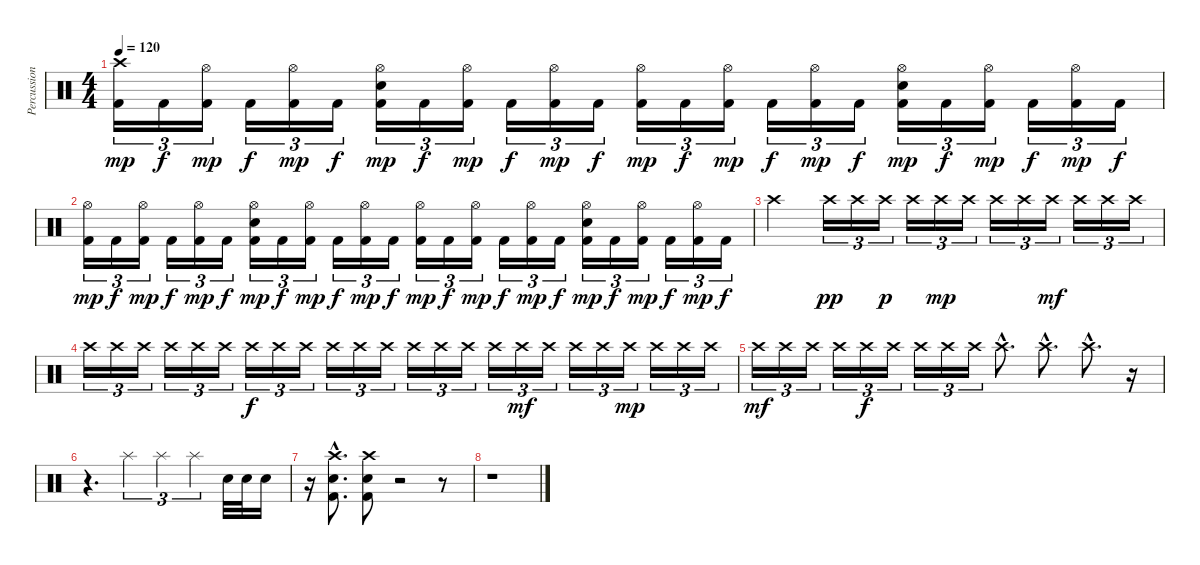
\track ("Percussion" "Percussion") {instrument percussion}
\staff {score}
\articulation defaults
\ts (4 4)
\tempo 120
\clef neutral
\ks c
("Crash high (hit)" "Kick (hit) 2").16{tu (3 2) dy mp} "Kick (hit) 2".16{tu (3 2) dy f} ("Hi-Hat (open)" "Kick (hit) 2").16{tu (3 2) dy mp} "Kick (hit) 2".16{tu (3 2) dy f} ("Hi-Hat (open)" "Kick (hit) 2").16{tu (3 2) dy mp} "Kick (hit) 2".16{tu (3 2) dy f} ("Hi-Hat (open)" "Electric Snare (hit)" "Kick (hit) 2").16{tu (3 2) dy mp} "Kick (hit) 2".16{tu (3 2) dy f} ("Hi-Hat (open)" "Kick (hit) 2").16{tu (3 2) dy mp} "Kick (hit) 2".16{tu (3 2) dy f} ("Hi-Hat (open)" "Kick (hit) 2").16{tu (3 2) dy mp} "Kick (hit) 2".16{tu (3 2) dy f} ("Hi-Hat (open)" "Kick (hit) 2").16{tu (3 2) dy mp} "Kick (hit) 2".16{tu (3 2) dy f} ("Hi-Hat (open)" "Kick (hit) 2").16{tu (3 2) dy mp} "Kick (hit) 2".16{tu (3 2) dy f} ("Hi-Hat (open)" "Kick (hit) 2").16{tu (3 2) dy mp} "Kick (hit) 2".16{tu (3 2) dy f} ("Hi-Hat (open)" "Electric Snare (hit)" "Kick (hit) 2").16{tu (3 2) dy mp} "Kick (hit) 2".16{tu (3 2) dy f} ("Hi-Hat (open)" "Kick (hit) 2").16{tu (3 2) dy mp} "Kick (hit) 2".16{tu (3 2) dy f} ("Hi-Hat (open)" "Kick (hit) 2").16{tu (3 2) dy mp} "Kick (hit) 2".16{tu (3 2) dy f} |
("Hi-Hat (open)" "Kick (hit) 2").16{tu (3 2) dy mp} "Kick (hit) 2".16{tu (3 2) dy f} ("Hi-Hat (open)" "Kick (hit) 2").16{tu (3 2) dy mp} "Kick (hit) 2".16{tu (3 2) dy f} ("Hi-Hat (open)" "Kick (hit) 2").16{tu (3 2) dy mp} "Kick (hit) 2".16{tu (3 2) dy f} ("Hi-Hat (open)" "Electric Snare (hit)" "Kick (hit) 2").16{tu (3 2) dy mp} "Kick (hit) 2".16{tu (3 2) dy f} ("Hi-Hat (open)" "Kick (hit) 2").16{tu (3 2) dy mp} "Kick (hit) 2".16{tu (3 2) dy f} ("Hi-Hat (open)" "Kick (hit) 2").16{tu (3 2) dy mp} "Kick (hit) 2".16{tu (3 2) dy f} ("Hi-Hat (open)" "Kick (hit) 2").16{tu (3 2) dy mp} "Kick (hit) 2".16{tu (3 2) dy f} ("Hi-Hat (open)" "Kick (hit) 2").16{tu (3 2) dy mp} "Kick (hit) 2".16{tu (3 2) dy f} ("Hi-Hat (open)" "Kick (hit) 2").16{tu (3 2) dy mp} "Kick (hit) 2".16{tu (3 2) dy f} ("Hi-Hat (open)" "Electric Snare (hit)" "Kick (hit) 2").16{tu (3 2) dy mp} "Kick (hit) 2".16{tu (3 2) dy f} ("Hi-Hat (open)" "Kick (hit) 2").16{tu (3 2) dy mp} "Kick (hit) 2".16{tu (3 2) dy f} ("Hi-Hat (open)" "Kick (hit) 2").16{tu (3 2) dy mp} "Kick (hit) 2".16{tu (3 2) dy f} |
"Crash high (hit)".2 "Crash high (hit)".16{tu (3 2) dy pp} "Crash high (hit)".16{tu (3 2)} "Crash high (hit)".16{tu (3 2) dy p} "Crash high (hit)".16{tu (3 2)} "Crash high (hit)".16{tu (3 2) dy mp} "Crash high (hit)".16{tu (3 2)} "Crash high (hit)".16{tu (3 2)} "Crash high (hit)".16{tu (3 2)} "Crash high (hit)".16{tu (3 2) dy mf} "Crash high (hit)".16{tu (3 2)} "Crash high (hit)".16{tu (3 2)} "Crash high (hit)".16{tu (3 2)} |
"Crash high (hit)".16{tu (3 2)} "Crash high (hit)".16{tu (3 2)} "Crash high (hit)".16{tu (3 2)} "Crash high (hit)".16{tu (3 2)} "Crash high (hit)".16{tu (3 2)} "Crash high (hit)".16{tu (3 2)} "Crash high (hit)".16{tu (3 2) dy f} "Crash high (hit)".16{tu (3 2)} "Crash high (hit)".16{tu (3 2)} "Crash high (hit)".16{tu (3 2)} "Crash high (hit)".16{tu (3 2)} "Crash high (hit)".16{tu (3 2)} "Crash high (hit)".16{tu (3 2)} "Crash high (hit)".16{tu (3 2)} "Crash high (hit)".16{tu (3 2)} "Crash high (hit)".16{tu (3 2)} "Crash high (hit)".16{tu (3 2) dy mf} "Crash high (hit)".16{tu (3 2)} "Crash high (hit)".16{tu (3 2)} "Crash high (hit)".16{tu (3 2)} "Crash high (hit)".16{tu (3 2) dy mp} "Crash high (hit)".16{tu (3 2)} "Crash high (hit)".16{tu (3 2)} "Crash high (hit)".16{tu (3 2)} |
"Crash high (hit)".16{tu (3 2) dy mf} "Crash high (hit)".16{tu (3 2)} "Crash high (hit)".16{tu (3 2)} "Crash high (hit)".16{tu (3 2)} "Crash high (hit)".16{tu (3 2) dy f} "Crash high (hit)".16{tu (3 2)} "Crash high (hit)".16{tu (3 2)} "Crash high (hit)".16{tu (3 2)} "Crash high (hit)".16{tu (3 2)} "Crash high (hit)"{hac}.8{d} "Crash high (hit)"{hac}.8{d} "Crash high (hit)"{hac}.8{d} r.16 |
r.4{d} "Splash (hit)".4{tu (3 2)} "Splash (hit)".4{tu (3 2)} "Splash (hit)".4{tu (3 2)} "Electric Snare (hit)".32 "Electric Snare (hit)".32 "Electric Snare (hit)".16 |
r.16 ("Crash high (hit)"{hac} "Electric Snare (hit)"{hac} "Kick (hit) 2"{hac}).8{d} ("Crash high (hit)" "Electric Snare (hit)" "Kick (hit) 2").8 r.2 r.8 |
r.1
